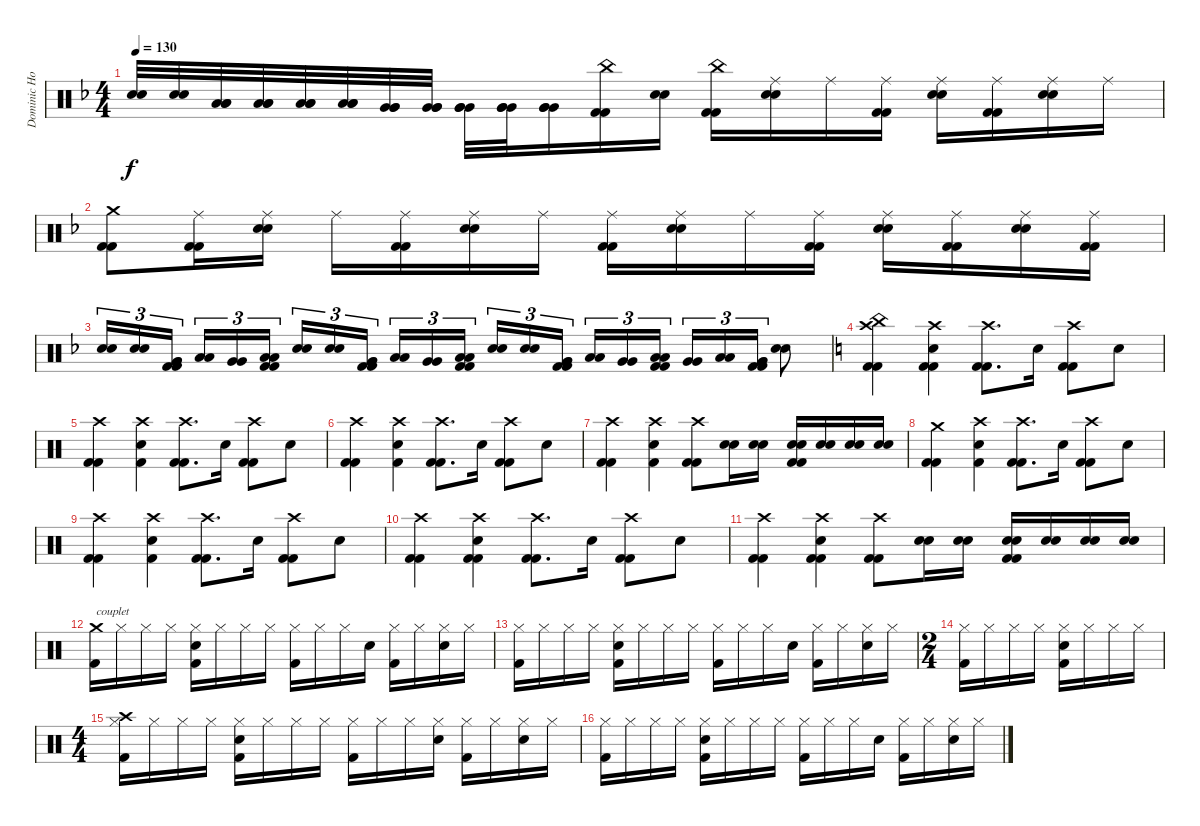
\track ("Dominic Howard" "Dominic Ho") {instrument percussion}
\staff {score}
\articulation defaults
\ts (4 4)
\tempo 130
\clef neutral
\ks f
("Electric Snare (hit)" "Electric Snare (hit)").32{dy f} ("Electric Snare (hit)" "Electric Snare (hit)").32 ("Low Tom (hit)" "Low Tom (hit)" "Low Tom (hit)").32 ("Low Tom (hit)" "Low Tom (hit)" "Low Tom (hit)").32 ("Low Tom (hit)" "Low Tom (hit)" "Low Tom (hit)").32 ("Low Tom (hit)" "Low Tom (hit)" "Low Tom (hit)").32 ("Very Low Tom (hit)" "Very Low Tom (hit)" "Very Low Tom (hit)").32 ("Very Low Tom (hit)" "Very Low Tom (hit)" "Very Low Tom (hit)").32 ("Very Low Tom (hit)" "Very Low Tom (hit)" "Very Low Tom (hit)").32 ("Very Low Tom (hit)" "Very Low Tom (hit)" "Very Low Tom (hit)").32 ("Very Low Tom (hit)" "Very Low Tom (hit)" "Very Low Tom (hit)").16 ("Kick (hit) 2" "Kick (hit) 2" "China (hit)").16 ("Electric Snare (hit)" "Electric Snare (hit)").16 ("China (hit)" "Kick (hit) 2" "Kick (hit) 2").16 ("Ride (middle)" "Electric Snare (hit)" "Electric Snare (hit)").16 "Ride (middle)".16 ("Ride (middle)" "Kick (hit) 2" "Kick (hit) 2").16 ("Ride (middle)" "Electric Snare (hit)" "Electric Snare (hit)").16 ("Ride (middle)" "Kick (hit) 2" "Kick (hit) 2").16 ("Ride (middle)" "Electric Snare (hit)" "Electric Snare (hit)").16 "Ride (middle)".16 |
("Crash medium (hit)" "Kick (hit) 2" "Kick (hit) 2").8 ("Ride (middle)" "Kick (hit) 2" "Kick (hit) 2").16 ("Ride (middle)" "Electric Snare (hit)" "Electric Snare (hit)").16 "Ride (middle)".16 ("Ride (middle)" "Kick (hit) 2" "Kick (hit) 2").16 ("Ride (middle)" "Electric Snare (hit)" "Electric Snare (hit)").16 "Ride (middle)".16 ("Ride (middle)" "Kick (hit) 2" "Kick (hit) 2").16 ("Ride (middle)" "Electric Snare (hit)" "Electric Snare (hit)").16 "Ride (middle)".16 ("Ride (middle)" "Kick (hit) 2" "Kick (hit) 2").16 ("Ride (middle)" "Electric Snare (hit)" "Electric Snare (hit)").16 ("Ride (middle)" "Kick (hit) 2" "Kick (hit) 2").16 ("Ride (middle)" "Electric Snare (hit)" "Electric Snare (hit)").16 ("Ride (middle)" "Kick (hit) 2" "Kick (hit) 2").16 |
("Electric Snare (hit)" "Electric Snare (hit)").16{tu (3 2)} ("Electric Snare (hit)" "Electric Snare (hit)").16{tu (3 2)} ("Very Low Tom (hit)" "Kick (hit) 2" "Kick (hit) 2" "Very Low Tom (hit)").16{tu (3 2) beam splitsecondary} ("Low Tom (hit)" "Low Tom (hit)").16{tu (3 2)} ("Very Low Tom (hit)" "Very Low Tom (hit)").16{tu (3 2)} ("Low Tom (hit)" "Kick (hit) 2" "Kick (hit) 2" "Low Tom (hit)").16{tu (3 2)} ("Electric Snare (hit)" "Electric Snare (hit)").16{tu (3 2)} ("Electric Snare (hit)" "Electric Snare (hit)").16{tu (3 2)} ("Very Low Tom (hit)" "Kick (hit) 2" "Kick (hit) 2" "Very Low Tom (hit)").16{tu (3 2) beam splitsecondary} ("Low Tom (hit)" "Low Tom (hit)").16{tu (3 2)} ("Very Low Tom (hit)" "Very Low Tom (hit)").16{tu (3 2)} ("Low Tom (hit)" "Kick (hit) 2" "Kick (hit) 2" "Low Tom (hit)").16{tu (3 2)} ("Electric Snare (hit)" "Electric Snare (hit)").16{tu (3 2)} ("Electric Snare (hit)" "Electric Snare (hit)").16{tu (3 2)} ("Very Low Tom (hit)" "Kick (hit) 2" "Very Low Tom (hit)" "Kick (hit) 2").16{tu (3 2) beam splitsecondary} ("Low Tom (hit)" "Low Tom (hit)").16{tu (3 2)} ("Very Low Tom (hit)" "Very Low Tom (hit)").16{tu (3 2)} ("Low Tom (hit)" "Kick (hit) 2" "Low Tom (hit)" "Kick (hit) 2").16{tu (3 2)} ("Very Low Tom (hit)" "Very Low Tom (hit)").16{tu (3 2)} ("Low Tom (hit)" "Low Tom (hit)").16{tu (3 2)} ("Very Low Tom (hit)" "Kick (hit) 2" "Very Low Tom (hit)" "Kick (hit) 2").16{tu (3 2)} ("Electric Snare (hit)" "Electric Snare (hit)").8 |
\ks c
("China (hit)" "Crash high (hit)" "Kick (hit) 2" "Kick (hit) 2").4 ("Kick (hit) 2" "Crash high (hit)" "Electric Snare (hit)" "Kick (hit) 2").4 ("Crash high (hit)" "Kick (hit) 2" "Kick (hit) 2").8{d} "Electric Snare (hit)".16 ("Crash high (hit)" "Kick (hit) 2" "Kick (hit) 2").8 "Electric Snare (hit)".8 |
("Crash high (hit)" "Kick (hit) 2" "Kick (hit) 2").4 ("Kick (hit) 2" "Crash high (hit)" "Electric Snare (hit)").4 ("Crash high (hit)" "Kick (hit) 2" "Kick (hit) 2").8{d} "Electric Snare (hit)".16 ("Crash high (hit)" "Kick (hit) 2" "Kick (hit) 2").8 "Electric Snare (hit)".8 |
("Crash high (hit)" "Kick (hit) 2" "Kick (hit) 2").4 ("Kick (hit) 2" "Crash high (hit)" "Electric Snare (hit)").4 ("Crash high (hit)" "Kick (hit) 2" "Kick (hit) 2").8{d} "Electric Snare (hit)".16 ("Crash high (hit)" "Kick (hit) 2" "Kick (hit) 2").8 "Electric Snare (hit)".8 |
("Crash high (hit)" "Kick (hit) 2" "Kick (hit) 2").4 ("Kick (hit) 2" "Crash high (hit)" "Electric Snare (hit)").4 ("Crash high (hit)" "Kick (hit) 2" "Kick (hit) 2").8 ("Electric Snare (hit)" "Electric Snare (hit)").16 ("Electric Snare (hit)" "Electric Snare (hit)").16 ("Electric Snare (hit)" "Kick (hit) 2" "Electric Snare (hit)" "Kick (hit) 2").16 ("Electric Snare (hit)" "Electric Snare (hit)").16 ("Electric Snare (hit)" "Electric Snare (hit)").16 ("Electric Snare (hit)" "Electric Snare (hit)").16 |
("Crash medium (hit)" "Kick (hit) 2" "Kick (hit) 2").4 ("Kick (hit) 2" "Crash high (hit)" "Electric Snare (hit)").4 ("Crash high (hit)" "Kick (hit) 2" "Kick (hit) 2").8{d} "Electric Snare (hit)".16 ("Crash high (hit)" "Kick (hit) 2" "Kick (hit) 2").8 "Electric Snare (hit)".8 |
("Crash high (hit)" "Kick (hit) 2" "Kick (hit) 2").4 ("Kick (hit) 2" "Crash high (hit)" "Electric Snare (hit)").4 ("Crash high (hit)" "Kick (hit) 2" "Kick (hit) 2").8{d} "Electric Snare (hit)".16 ("Crash high (hit)" "Kick (hit) 2" "Kick (hit) 2").8 "Electric Snare (hit)".8 |
("Crash high (hit)" "Kick (hit) 2" "Kick (hit) 2").4 ("Kick (hit) 2" "Crash high (hit)" "Electric Snare (hit)" "Kick (hit) 2").4 ("Crash high (hit)" "Kick (hit) 2" "Kick (hit) 2").8{d} "Electric Snare (hit)".16 ("Crash high (hit)" "Kick (hit) 2" "Kick (hit) 2").8 "Electric Snare (hit)".8 |
("Crash high (hit)" "Kick (hit) 2" "Kick (hit) 2").4 ("Kick (hit) 2" "Crash high (hit)" "Electric Snare (hit)" "Kick (hit) 2").4 ("Crash high (hit)" "Kick (hit) 2" "Kick (hit) 2").8 ("Electric Snare (hit)" "Electric Snare (hit)").16 ("Electric Snare (hit)" "Electric Snare (hit)").16 ("Electric Snare (hit)" "Kick (hit) 2" "Electric Snare (hit)" "Kick (hit) 2").16 ("Electric Snare (hit)" "Electric Snare (hit)").16 ("Electric Snare (hit)" "Electric Snare (hit)").16 ("Electric Snare (hit)" "Electric Snare (hit)").16 |
("Crash medium (hit)" "Kick (hit) 2").16{txt "couplet"} "Hi-Hat (closed)".16 "Hi-Hat (closed)".16 "Hi-Hat (closed)".16 ("Hi-Hat (closed)" "Kick (hit) 2" "Electric Snare (hit)").16 "Hi-Hat (closed)".16 "Hi-Hat (closed)".16 "Hi-Hat (closed)".16 ("Hi-Hat (closed)" "Kick (hit) 2").16 "Hi-Hat (closed)".16 "Hi-Hat (closed)".16 "Electric Snare (hit)".16 ("Hi-Hat (closed)" "Kick (hit) 2").16 "Hi-Hat (closed)".16 ("Hi-Hat (closed)" "Electric Snare (hit)").16 "Hi-Hat (closed)".16 |
("Hi-Hat (closed)" "Kick (hit) 2").16 "Hi-Hat (closed)".16 "Hi-Hat (closed)".16 "Hi-Hat (closed)".16 ("Hi-Hat (closed)" "Kick (hit) 2" "Electric Snare (hit)").16 "Hi-Hat (closed)".16 "Hi-Hat (closed)".16 "Hi-Hat (closed)".16 ("Hi-Hat (closed)" "Kick (hit) 2").16 "Hi-Hat (closed)".16 "Hi-Hat (closed)".16 "Electric Snare (hit)".16 ("Hi-Hat (closed)" "Kick (hit) 2").16 "Hi-Hat (closed)".16 ("Hi-Hat (closed)" "Electric Snare (hit)").16 "Hi-Hat (closed)".16 |
\ts (2 4)
("Hi-Hat (closed)" "Kick (hit) 2").16 "Hi-Hat (closed)".16 "Hi-Hat (closed)".16 "Hi-Hat (closed)".16 ("Hi-Hat (closed)" "Kick (hit) 2" "Electric Snare (hit)").16 "Hi-Hat (closed)".16 "Hi-Hat (closed)".16 "Hi-Hat (closed)".16 |
\ts (4 4)
("Crash high (hit)" "Hi-Hat (closed)" "Kick (hit) 2").16 "Hi-Hat (closed)".16 "Hi-Hat (closed)".16 "Hi-Hat (closed)".16 ("Hi-Hat (closed)" "Electric Snare (hit)" "Kick (hit) 2").16 "Hi-Hat (closed)".16 "Hi-Hat (closed)".16 "Hi-Hat (closed)".16 ("Hi-Hat (closed)" "Kick (hit) 2").16 "Hi-Hat (closed)".16 "Hi-Hat (closed)".16 ("Hi-Hat (closed)" "Electric Snare (hit)").16 ("Hi-Hat (closed)" "Kick (hit) 2").16 "Hi-Hat (closed)".16 ("Electric Snare (hit)" "Hi-Hat (closed)").16 "Hi-Hat (closed)".16 |
("Hi-Hat (closed)" "Kick (hit) 2").16 "Hi-Hat (closed)".16 "Hi-Hat (closed)".16 "Hi-Hat (closed)".16 ("Hi-Hat (closed)" "Electric Snare (hit)" "Kick (hit) 2").16 "Hi-Hat (closed)".16 "Hi-Hat (closed)".16 "Hi-Hat (closed)".16 ("Hi-Hat (closed)" "Kick (hit) 2").16 "Hi-Hat (closed)".16 "Hi-Hat (closed)".16 "Electric Snare (hit)".16 ("Hi-Hat (closed)" "Kick (hit) 2").16 "Hi-Hat (closed)".16 ("Hi-Hat (closed)" "Electric Snare (hit)").16 "Hi-Hat (closed)".16
